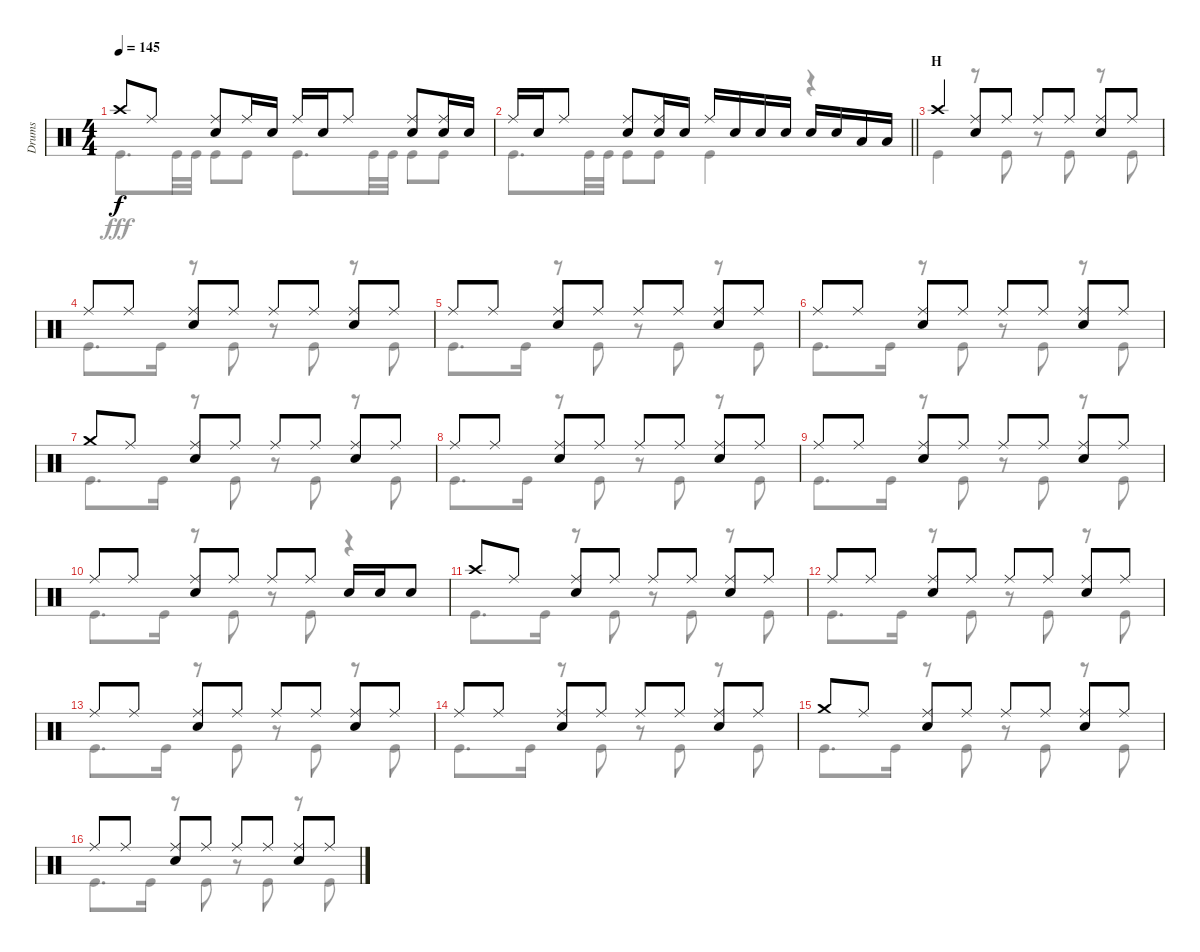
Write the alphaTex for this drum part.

\track ("Drums" "Drums") {instrument percussion}
\staff {score}
\articulation defaults
\voice
\ts (4 4)
\tempo 145
\clef neutral
\ks c "Crash high (hit)".8{dy f} "Ride (middle)".8
("Ride (middle)" "Snare (hit) 2").8 "Ride (middle)".16 "Snare (hit) 2".16 "Ride (middle)".16 "Snare (hit) 2".16 "Ride (middle)".8 ("Ride (middle)" "Snare (hit) 2").8 ("Ride (middle)" "Snare (hit) 2").16 "Snare (hit) 2".16 |
\barLineRight lightlight "Ride (middle)".16 "Snare (hit) 2".16 "Ride (middle)".8
("Ride (middle)" "Snare (hit) 2").8 ("Ride (middle)" "Snare (hit) 2").16 "Snare (hit) 2".16 "Ride (middle)".16 "Snare (hit) 2".16 "Snare (hit) 2".16 "Snare (hit) 2".16 "Snare (hit) 2".16 "Snare (hit) 2".16 "Low Tom (hit)".16 "Low Tom (hit)".16 |
\section ("" "H")
"Crash high (hit)".4 ("Ride (middle)" "Snare (hit) 2").8 "Ride (middle)".8 "Ride (middle)".8 "Ride (middle)".8 ("Ride (middle)" "Snare (hit) 2").8 "Ride (middle)".8 |
"Ride (middle)".8 "Ride (middle)".8 ("Ride (middle)" "Snare (hit) 2").8 "Ride (middle)".8 "Ride (middle)".8 "Ride (middle)".8 ("Ride (middle)" "Snare (hit) 2").8 "Ride (middle)".8 |
"Ride (middle)".8 "Ride (middle)".8 ("Ride (middle)" "Snare (hit) 2").8 "Ride (middle)".8 "Ride (middle)".8 "Ride (middle)".8 ("Ride (middle)" "Snare (hit) 2").8 "Ride (middle)".8 |
"Ride (middle)".8 "Ride (middle)".8 ("Ride (middle)" "Snare (hit) 2").8 "Ride (middle)".8 "Ride (middle)".8 "Ride (middle)".8 ("Ride (middle)" "Snare (hit) 2").8 "Ride (middle)".8 |
"Crash medium (hit)".8 "Ride (middle)".8 ("Ride (middle)" "Snare (hit) 2").8 "Ride (middle)".8 "Ride (middle)".8 "Ride (middle)".8 ("Ride (middle)" "Snare (hit) 2").8 "Ride (middle)".8 |
"Ride (middle)".8 "Ride (middle)".8 ("Ride (middle)" "Snare (hit) 2").8 "Ride (middle)".8 "Ride (middle)".8 "Ride (middle)".8 ("Ride (middle)" "Snare (hit) 2").8 "Ride (middle)".8 |
"Ride (middle)".8 "Ride (middle)".8 ("Ride (middle)" "Snare (hit) 2").8 "Ride (middle)".8 "Ride (middle)".8 "Ride (middle)".8 ("Ride (middle)" "Snare (hit) 2").8 "Ride (middle)".8 |
"Ride (middle)".8 "Ride (middle)".8 ("Ride (middle)" "Snare (hit) 2").8 "Ride (middle)".8 "Ride (middle)".8 "Ride (middle)".8 "Snare (hit) 2".16 "Snare (hit) 2".16 "Snare (hit) 2".8 |
"Crash high (hit)".8 "Ride (middle)".8 ("Ride (middle)" "Snare (hit) 2").8 "Ride (middle)".8 "Ride (middle)".8 "Ride (middle)".8 ("Ride (middle)" "Snare (hit) 2").8 "Ride (middle)".8 |
"Ride (middle)".8 "Ride (middle)".8 ("Ride (middle)" "Snare (hit) 2").8 "Ride (middle)".8 "Ride (middle)".8 "Ride (middle)".8 ("Ride (middle)" "Snare (hit) 2").8 "Ride (middle)".8 |
"Ride (middle)".8 "Ride (middle)".8 ("Ride (middle)" "Snare (hit) 2").8 "Ride (middle)".8 "Ride (middle)".8 "Ride (middle)".8 ("Ride (middle)" "Snare (hit) 2").8 "Ride (middle)".8 |
"Ride (middle)".8 "Ride (middle)".8 ("Ride (middle)" "Snare (hit) 2").8 "Ride (middle)".8 "Ride (middle)".8 "Ride (middle)".8 ("Ride (middle)" "Snare (hit) 2").8 "Ride (middle)".8 |
"Crash medium (hit)".8 "Ride (middle)".8 ("Ride (middle)" "Snare (hit) 2").8 "Ride (middle)".8 "Ride (middle)".8 "Ride (middle)".8 ("Ride (middle)" "Snare (hit) 2").8 "Ride (middle)".8 |
"Ride (middle)".8 "Ride (middle)".8 ("Ride (middle)" "Snare (hit) 2").8 "Ride (middle)".8 "Ride (middle)".8 "Ride (middle)".8 ("Ride (middle)" "Snare (hit) 2").8 "Ride (middle)".8
\voice
\clef neutral
\ottava regular
\simile none
\ks c "Kick (hit)".8{d dy fff} "Kick (hit)".32 "Kick (hit)".32 "Kick (hit)".8 "Kick (hit)".8 "Kick (hit)".8{d} "Kick (hit)".32 "Kick (hit)".32 "Kick (hit)".8 "Kick (hit)".8
|
\barLineRight lightlight "Kick (hit)".8{d} "Kick (hit)".32 "Kick (hit)".32 "Kick (hit)".8 "Kick (hit)".8 "Kick (hit)".4
r.4 |
"Kick (hit)".4 r.8 "Kick (hit)".8 r.8 "Kick (hit)".8 r.8 "Kick (hit)".8 |
"Kick (hit)".8{d} "Kick (hit)".16 r.8 "Kick (hit)".8 r.8 "Kick (hit)".8 r.8 "Kick (hit)".8 |
"Kick (hit)".8{d} "Kick (hit)".16 r.8 "Kick (hit)".8 r.8 "Kick (hit)".8 r.8 "Kick (hit)".8 |
"Kick (hit)".8{d} "Kick (hit)".16 r.8 "Kick (hit)".8 r.8 "Kick (hit)".8 r.8 "Kick (hit)".8 |
"Kick (hit)".8{d} "Kick (hit)".16 r.8 "Kick (hit)".8 r.8 "Kick (hit)".8 r.8 "Kick (hit)".8 |
"Kick (hit)".8{d} "Kick (hit)".16 r.8 "Kick (hit)".8 r.8 "Kick (hit)".8 r.8 "Kick (hit)".8 |
"Kick (hit)".8{d} "Kick (hit)".16 r.8 "Kick (hit)".8 r.8 "Kick (hit)".8 r.8 "Kick (hit)".8 |
"Kick (hit)".8{d} "Kick (hit)".16 r.8 "Kick (hit)".8 r.8 "Kick (hit)".8 r.4 |
"Kick (hit)".8{d} "Kick (hit)".16 r.8 "Kick (hit)".8 r.8 "Kick (hit)".8 r.8 "Kick (hit)".8 |
"Kick (hit)".8{d} "Kick (hit)".16 r.8 "Kick (hit)".8 r.8 "Kick (hit)".8 r.8 "Kick (hit)".8 |
"Kick (hit)".8{d} "Kick (hit)".16 r.8 "Kick (hit)".8 r.8 "Kick (hit)".8 r.8 "Kick (hit)".8 |
"Kick (hit)".8{d} "Kick (hit)".16 r.8 "Kick (hit)".8 r.8 "Kick (hit)".8 r.8 "Kick (hit)".8 |
"Kick (hit)".8{d} "Kick (hit)".16 r.8 "Kick (hit)".8 r.8 "Kick (hit)".8 r.8 "Kick (hit)".8 |
"Kick (hit)".8{d} "Kick (hit)".16 r.8 "Kick (hit)".8 r.8 "Kick (hit)".8 r.8 "Kick (hit)".8
